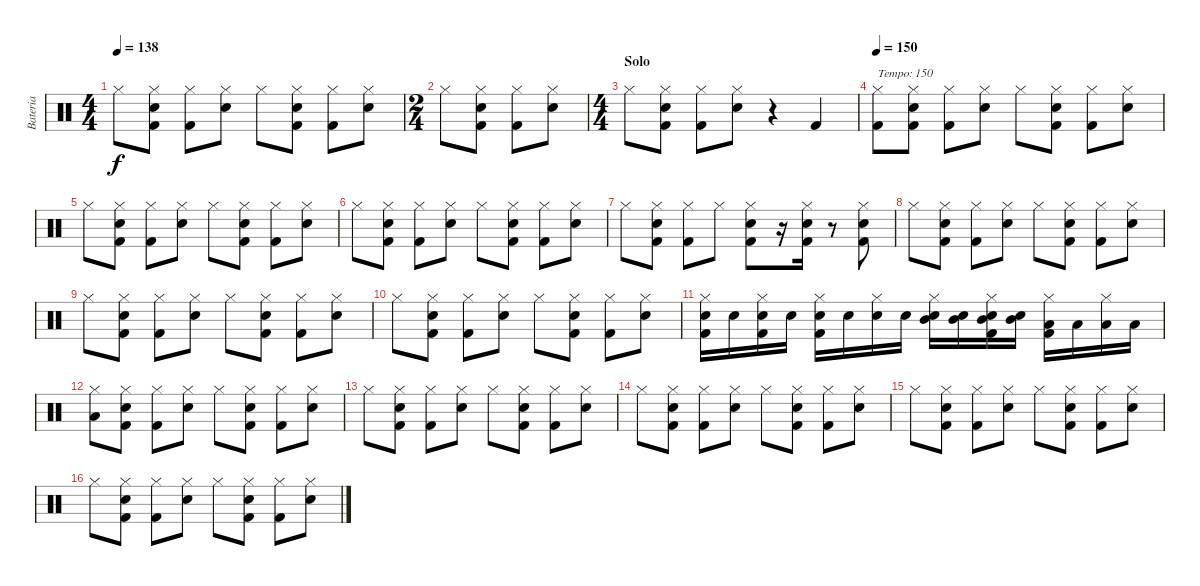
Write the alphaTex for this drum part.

\track ("Bateria" "Bateria") {instrument percussion}
\staff {score}
\articulation defaults
\ts (4 4)
\tempo 138
\clef neutral
\ks c "Hi-Hat (closed)".8{dy f}
("Electric Snare (hit)" "Hi-Hat (closed)" "Kick (hit) 2").8 ("Hi-Hat (closed)" "Kick (hit) 2").8 ("Electric Snare (hit)" "Hi-Hat (closed)").8 "Hi-Hat (closed)".8 ("Electric Snare (hit)" "Hi-Hat (closed)" "Kick (hit) 2").8 ("Hi-Hat (closed)" "Kick (hit) 2").8 ("Electric Snare (hit)" "Hi-Hat (closed)").8 |
\ts (2 4)
"Hi-Hat (closed)".8 ("Electric Snare (hit)" "Hi-Hat (closed)" "Kick (hit) 2").8 ("Hi-Hat (closed)" "Kick (hit) 2").8 ("Electric Snare (hit)" "Hi-Hat (closed)").8 |
\ts (4 4)
\section ("" "Solo")
"Hi-Hat (closed)".8 ("Electric Snare (hit)" "Hi-Hat (closed)" "Kick (hit) 2").8 ("Hi-Hat (closed)" "Kick (hit) 2").8 ("Electric Snare (hit)" "Hi-Hat (closed)").8 r.4 "Kick (hit) 2".4 |
\tempo 150
("Hi-Hat (closed)" "Kick (hit) 2").8{txt "Tempo: 150"} ("Electric Snare (hit)" "Hi-Hat (closed)" "Kick (hit) 2").8 ("Hi-Hat (closed)" "Kick (hit) 2").8 ("Electric Snare (hit)" "Hi-Hat (closed)").8 "Hi-Hat (closed)".8 ("Electric Snare (hit)" "Hi-Hat (closed)" "Kick (hit) 2").8 ("Hi-Hat (closed)" "Kick (hit) 2").8 ("Electric Snare (hit)" "Hi-Hat (closed)").8 |
"Hi-Hat (closed)".8 ("Electric Snare (hit)" "Hi-Hat (closed)" "Kick (hit) 2").8 ("Hi-Hat (closed)" "Kick (hit) 2").8 ("Electric Snare (hit)" "Hi-Hat (closed)").8 "Hi-Hat (closed)".8 ("Electric Snare (hit)" "Hi-Hat (closed)" "Kick (hit) 2").8 ("Hi-Hat (closed)" "Kick (hit) 2").8 ("Electric Snare (hit)" "Hi-Hat (closed)").8 |
"Hi-Hat (closed)".8 ("Electric Snare (hit)" "Hi-Hat (closed)" "Kick (hit) 2").8 ("Hi-Hat (closed)" "Kick (hit) 2").8 ("Electric Snare (hit)" "Hi-Hat (closed)").8 "Hi-Hat (closed)".8 ("Electric Snare (hit)" "Hi-Hat (closed)" "Kick (hit) 2").8 ("Hi-Hat (closed)" "Kick (hit) 2").8 ("Electric Snare (hit)" "Hi-Hat (closed)").8 |
"Hi-Hat (closed)".8 ("Electric Snare (hit)" "Hi-Hat (closed)" "Kick (hit) 2").8 ("Hi-Hat (closed)" "Kick (hit) 2").8 "Hi-Hat (closed)".8 ("Electric Snare (hit)" "Hi-Hat (closed)" "Kick (hit) 2").8 r.16 ("Electric Snare (hit)" "Hi-Hat (closed)" "Kick (hit) 2").16 r.8 ("Electric Snare (hit)" "Hi-Hat (closed)" "Kick (hit) 2").8 |
"Hi-Hat (closed)".8 ("Electric Snare (hit)" "Hi-Hat (closed)" "Kick (hit) 2").8 ("Hi-Hat (closed)" "Kick (hit) 2").8 ("Electric Snare (hit)" "Hi-Hat (closed)").8 "Hi-Hat (closed)".8 ("Electric Snare (hit)" "Hi-Hat (closed)" "Kick (hit) 2").8 ("Hi-Hat (closed)" "Kick (hit) 2").8 ("Electric Snare (hit)" "Hi-Hat (closed)").8 |
"Hi-Hat (closed)".8 ("Electric Snare (hit)" "Hi-Hat (closed)" "Kick (hit) 2").8 ("Hi-Hat (closed)" "Kick (hit) 2").8 ("Electric Snare (hit)" "Hi-Hat (closed)").8 "Hi-Hat (closed)".8 ("Electric Snare (hit)" "Hi-Hat (closed)" "Kick (hit) 2").8 ("Hi-Hat (closed)" "Kick (hit) 2").8 ("Electric Snare (hit)" "Hi-Hat (closed)").8 |
"Hi-Hat (closed)".8 ("Electric Snare (hit)" "Hi-Hat (closed)" "Kick (hit) 2").8 ("Hi-Hat (closed)" "Kick (hit) 2").8 ("Electric Snare (hit)" "Hi-Hat (closed)").8 "Hi-Hat (closed)".8 ("Electric Snare (hit)" "Hi-Hat (closed)" "Kick (hit) 2").8 ("Hi-Hat (closed)" "Kick (hit) 2").8 ("Electric Snare (hit)" "Hi-Hat (closed)").8 |
("Electric Snare (hit)" "Hi-Hat (closed)" "Kick (hit) 2").16 "Electric Snare (hit)".16 ("Electric Snare (hit)" "Hi-Hat (closed)" "Kick (hit) 2").16 "Electric Snare (hit)".16 ("Electric Snare (hit)" "Hi-Hat (closed)" "Kick (hit) 2").16 "Electric Snare (hit)".16 ("Electric Snare (hit)" "Hi-Hat (closed)").16 "Electric Snare (hit)".16 ("Electric Snare (hit)" "Hi-Hat (closed)" "Mid Tom (hit)").16 ("Electric Snare (hit)" "Mid Tom (hit)").16 ("Electric Snare (hit)" "Hi-Hat (closed)" "Mid Tom (hit)" "Kick (hit) 2").16 ("Electric Snare (hit)" "Mid Tom (hit)").16 ("Low Tom (hit)" "Hi-Hat (closed)" "Kick (hit) 2").16 "Low Tom (hit)".16 ("Low Tom (hit)" "Hi-Hat (closed)").16 "Low Tom (hit)".16 |
("Low Tom (hit)" "Hi-Hat (closed)").8 ("Electric Snare (hit)" "Hi-Hat (closed)" "Kick (hit) 2").8 ("Hi-Hat (closed)" "Kick (hit) 2").8 ("Electric Snare (hit)" "Hi-Hat (closed)").8 "Hi-Hat (closed)".8 ("Electric Snare (hit)" "Hi-Hat (closed)" "Kick (hit) 2").8 ("Hi-Hat (closed)" "Kick (hit) 2").8 ("Electric Snare (hit)" "Hi-Hat (closed)").8 |
"Hi-Hat (closed)".8 ("Electric Snare (hit)" "Hi-Hat (closed)" "Kick (hit) 2").8 ("Hi-Hat (closed)" "Kick (hit) 2").8 ("Electric Snare (hit)" "Hi-Hat (closed)").8 "Hi-Hat (closed)".8 ("Electric Snare (hit)" "Hi-Hat (closed)" "Kick (hit) 2").8 ("Hi-Hat (closed)" "Kick (hit) 2").8 ("Electric Snare (hit)" "Hi-Hat (closed)").8 |
"Hi-Hat (closed)".8 ("Electric Snare (hit)" "Hi-Hat (closed)" "Kick (hit) 2").8 ("Hi-Hat (closed)" "Kick (hit) 2").8 ("Electric Snare (hit)" "Hi-Hat (closed)").8 "Hi-Hat (closed)".8 ("Electric Snare (hit)" "Hi-Hat (closed)" "Kick (hit) 2").8 ("Hi-Hat (closed)" "Kick (hit) 2").8 ("Electric Snare (hit)" "Hi-Hat (closed)").8 |
"Hi-Hat (closed)".8 ("Electric Snare (hit)" "Hi-Hat (closed)" "Kick (hit) 2").8 ("Hi-Hat (closed)" "Kick (hit) 2").8 ("Electric Snare (hit)" "Hi-Hat (closed)").8 "Hi-Hat (closed)".8 ("Electric Snare (hit)" "Hi-Hat (closed)" "Kick (hit) 2").8 ("Hi-Hat (closed)" "Kick (hit) 2").8 ("Electric Snare (hit)" "Hi-Hat (closed)").8 |
"Hi-Hat (closed)".8 ("Electric Snare (hit)" "Hi-Hat (closed)" "Kick (hit) 2").8 ("Hi-Hat (closed)" "Kick (hit) 2").8 ("Electric Snare (hit)" "Hi-Hat (closed)").8 "Hi-Hat (closed)".8 ("Electric Snare (hit)" "Hi-Hat (closed)" "Kick (hit) 2").8 ("Hi-Hat (closed)" "Kick (hit) 2").8 ("Electric Snare (hit)" "Hi-Hat (closed)").8
